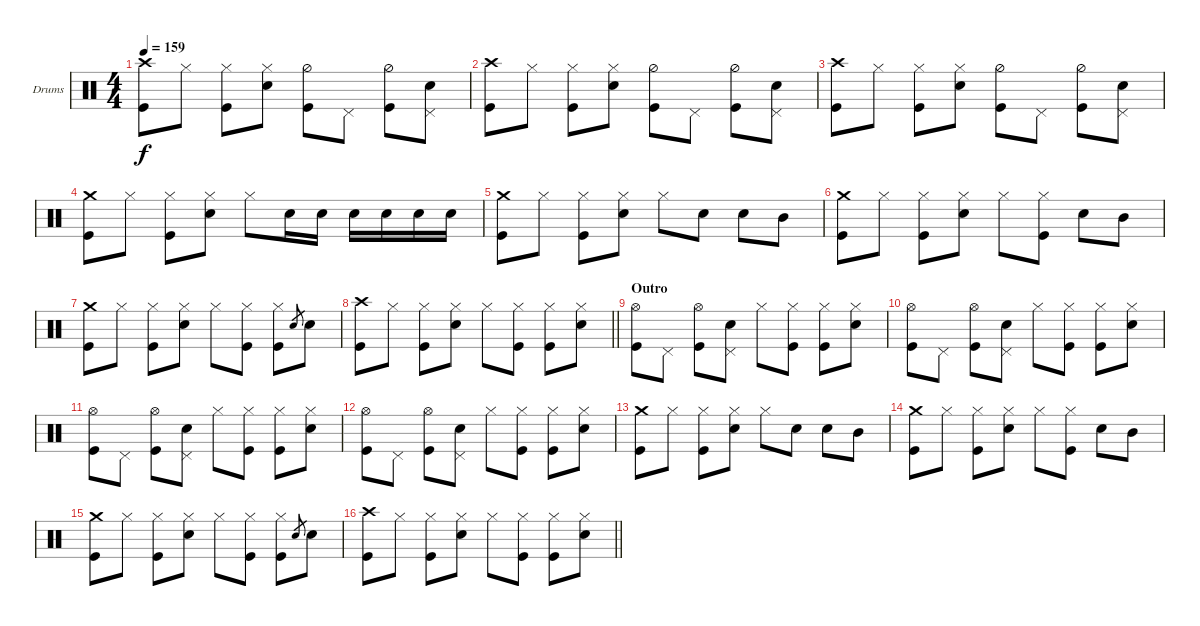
\bracketExtendMode groupsimilarinstruments
\firstSystemTrackNameOrientation horizontal
\otherSystemsTrackNameOrientation horizontal
\track ("Fabrizio" "Drums") {instrument percussion}
\staff {score}
\articulation defaults
\ts (4 4)
\tempo 159
\clef neutral
\ks c
("Kick (hit)" "Crash high (hit)").8{dy f} "Hi-Hat (closed)".8 ("Hi-Hat (closed)" "Kick (hit)").8 ("Snare (hit) 2" "Hi-Hat (closed)").8 ("Hi-Hat (half)" "Kick (hit)").8 "Pedal Hi-Hat (hit)".8 ("Kick (hit)" "Hi-Hat (half)").8 ("Snare (hit) 2" "Pedal Hi-Hat (hit)").8 |
("Kick (hit)" "Crash high (hit)").8 "Hi-Hat (closed)".8 ("Hi-Hat (closed)" "Kick (hit)").8 ("Snare (hit) 2" "Hi-Hat (closed)").8 ("Hi-Hat (half)" "Kick (hit)").8 "Pedal Hi-Hat (hit)".8 ("Kick (hit)" "Hi-Hat (half)").8 ("Snare (hit) 2" "Pedal Hi-Hat (hit)").8 |
("Kick (hit)" "Crash high (hit)").8 "Hi-Hat (closed)".8 ("Hi-Hat (closed)" "Kick (hit)").8 ("Snare (hit) 2" "Hi-Hat (closed)").8 ("Hi-Hat (half)" "Kick (hit)").8 "Pedal Hi-Hat (hit)".8 ("Kick (hit)" "Hi-Hat (half)").8 ("Snare (hit) 2" "Pedal Hi-Hat (hit)").8 |
("Crash medium (hit)" "Kick (hit)").8 "Hi-Hat (closed)".8 ("Kick (hit)" "Hi-Hat (closed)").8 ("Snare (hit) 2" "Hi-Hat (closed)").8 "Hi-Hat (closed)".8 "Snare (hit) 2".16 "Snare (hit) 2".16 "Snare (hit) 2".16 "Snare (hit) 2".16 "Snare (hit) 2".16 "Snare (hit) 2".16 |
("Crash medium (hit)" "Kick (hit)").8 "Hi-Hat (closed)".8 ("Kick (hit)" "Hi-Hat (closed)").8 ("Snare (hit) 2" "Hi-Hat (closed)").8 "Hi-Hat (closed)".8 "Snare (hit) 2".8 "Snare (hit) 2".8 "Mid Tom (hit)".8 |
("Crash medium (hit)" "Kick (hit)").8 "Hi-Hat (closed)".8 ("Kick (hit)" "Hi-Hat (closed)").8 ("Snare (hit) 2" "Hi-Hat (closed)").8 "Hi-Hat (closed)".8 ("Hi-Hat (closed)" "Kick (hit)").8 "Snare (hit) 2".8 "Mid Tom (hit)".8 |
("Crash medium (hit)" "Kick (hit)").8 "Hi-Hat (closed)".8 ("Kick (hit)" "Hi-Hat (closed)").8 ("Snare (hit) 2" "Hi-Hat (closed)").8 "Hi-Hat (closed)".8 ("Hi-Hat (closed)" "Kick (hit)").8 ("Hi-Hat (closed)" "Kick (hit)").8 "Snare (hit) 2".8{gr} "Snare (hit) 2".8 |
\barLineRight lightlight
("Kick (hit)" "Crash high (hit)").8 "Hi-Hat (closed)".8 ("Kick (hit)" "Hi-Hat (closed)").8 ("Snare (hit) 2" "Hi-Hat (closed)").8 "Hi-Hat (closed)".8 ("Hi-Hat (closed)" "Kick (hit)").8 ("Hi-Hat (closed)" "Kick (hit)").8 ("Hi-Hat (closed)" "Snare (hit) 2").8 |
\section ("" "Outro")
("Hi-Hat (open)" "Kick (hit)").8 "Pedal Hi-Hat (hit)".8 ("Hi-Hat (open)" "Kick (hit)").8 ("Pedal Hi-Hat (hit)" "Snare (hit) 2").8 "Hi-Hat (closed)".8 ("Kick (hit)" "Hi-Hat (closed)").8 ("Kick (hit)" "Hi-Hat (closed)").8 ("Snare (hit) 2" "Hi-Hat (closed)").8 |
("Hi-Hat (open)" "Kick (hit)").8 "Pedal Hi-Hat (hit)".8 ("Hi-Hat (open)" "Kick (hit)").8 ("Pedal Hi-Hat (hit)" "Snare (hit) 2").8 "Hi-Hat (closed)".8 ("Kick (hit)" "Hi-Hat (closed)").8 ("Kick (hit)" "Hi-Hat (closed)").8 ("Snare (hit) 2" "Hi-Hat (closed)").8 |
("Hi-Hat (open)" "Kick (hit)").8 "Pedal Hi-Hat (hit)".8 ("Hi-Hat (open)" "Kick (hit)").8 ("Pedal Hi-Hat (hit)" "Snare (hit) 2").8 "Hi-Hat (closed)".8 ("Kick (hit)" "Hi-Hat (closed)").8 ("Kick (hit)" "Hi-Hat (closed)").8 ("Snare (hit) 2" "Hi-Hat (closed)").8 |
("Hi-Hat (open)" "Kick (hit)").8 "Pedal Hi-Hat (hit)".8 ("Hi-Hat (open)" "Kick (hit)").8 ("Pedal Hi-Hat (hit)" "Snare (hit) 2").8 "Hi-Hat (closed)".8 ("Kick (hit)" "Hi-Hat (closed)").8 ("Kick (hit)" "Hi-Hat (closed)").8 ("Snare (hit) 2" "Hi-Hat (closed)").8 |
("Crash medium (hit)" "Kick (hit)").8 "Hi-Hat (closed)".8 ("Kick (hit)" "Hi-Hat (closed)").8 ("Snare (hit) 2" "Hi-Hat (closed)").8 "Hi-Hat (closed)".8 "Snare (hit) 2".8 "Snare (hit) 2".8 "Mid Tom (hit)".8 |
("Crash medium (hit)" "Kick (hit)").8 "Hi-Hat (closed)".8 ("Kick (hit)" "Hi-Hat (closed)").8 ("Snare (hit) 2" "Hi-Hat (closed)").8 "Hi-Hat (closed)".8 ("Hi-Hat (closed)" "Kick (hit)").8 "Snare (hit) 2".8 "Mid Tom (hit)".8 |
("Crash medium (hit)" "Kick (hit)").8 "Hi-Hat (closed)".8 ("Kick (hit)" "Hi-Hat (closed)").8 ("Snare (hit) 2" "Hi-Hat (closed)").8 "Hi-Hat (closed)".8 ("Hi-Hat (closed)" "Kick (hit)").8 ("Hi-Hat (closed)" "Kick (hit)").8 "Snare (hit) 2".8{gr} "Snare (hit) 2".8 |
\barLineRight lightlight
("Kick (hit)" "Crash high (hit)").8 "Hi-Hat (closed)".8 ("Kick (hit)" "Hi-Hat (closed)").8 ("Snare (hit) 2" "Hi-Hat (closed)").8 "Hi-Hat (closed)".8 ("Hi-Hat (closed)" "Kick (hit)").8 ("Hi-Hat (closed)" "Kick (hit)").8 ("Hi-Hat (closed)" "Snare (hit) 2").8
